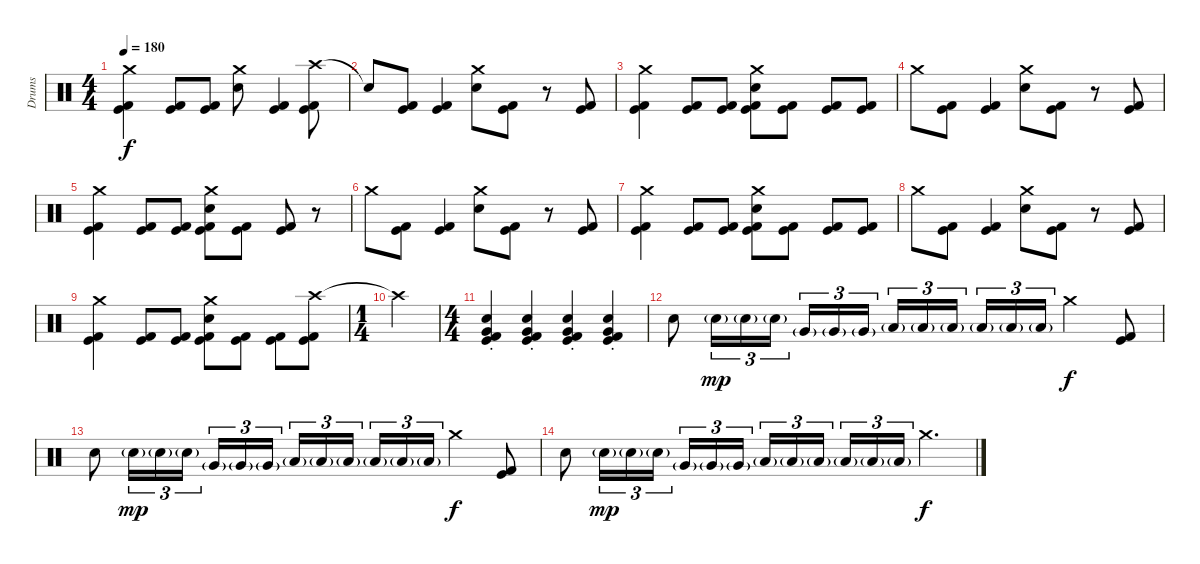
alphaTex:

\track ("Drums" "Drums") {instrument percussion}
\staff {score}
\articulation defaults
\ts (4 4)
\tempo 180
\clef neutral
\ks c
("Crash medium (hit)" "Kick (hit)" "Kick (hit) 2").4{dy f} ("Kick (hit)" "Kick (hit) 2").8 ("Kick (hit)" "Kick (hit) 2").8 ("Crash medium (hit)" "Electric Snare (hit)").8 ("Kick (hit)" "Kick (hit) 2").4 ("Crash high (hit)" "Kick (hit)" "Kick (hit) 2").8 |
"Snare (hit)"{t}.8 ("Kick (hit)" "Kick (hit) 2").8 ("Kick (hit)" "Kick (hit) 2").4 ("Crash medium (hit)" "Electric Snare (hit)").8 ("Kick (hit)" "Kick (hit) 2").8 r.8 ("Kick (hit)" "Kick (hit) 2").8 |
("Crash medium (hit)" "Kick (hit)" "Kick (hit) 2").4 ("Kick (hit)" "Kick (hit) 2").8 ("Kick (hit)" "Kick (hit) 2").8 ("Crash medium (hit)" "Electric Snare (hit)" "Kick (hit)" "Kick (hit) 2").8 ("Kick (hit)" "Kick (hit) 2").8 ("Kick (hit)" "Kick (hit) 2").8 ("Kick (hit)" "Kick (hit) 2").8 |
"Crash medium (hit)".8 ("Kick (hit)" "Kick (hit) 2").8 ("Kick (hit)" "Kick (hit) 2").4 ("Crash medium (hit)" "Electric Snare (hit)").8 ("Kick (hit)" "Kick (hit) 2").8 r.8 ("Kick (hit)" "Kick (hit) 2").8 |
("Crash medium (hit)" "Kick (hit)" "Kick (hit) 2").4 ("Kick (hit)" "Kick (hit) 2").8 ("Kick (hit)" "Kick (hit) 2").8 ("Crash medium (hit)" "Electric Snare (hit)" "Kick (hit)" "Kick (hit) 2").8 ("Kick (hit)" "Kick (hit) 2").8 ("Kick (hit)" "Kick (hit) 2").8 r.8 |
"Crash medium (hit)".8 ("Kick (hit)" "Kick (hit) 2").8 ("Kick (hit)" "Kick (hit) 2").4 ("Crash medium (hit)" "Electric Snare (hit)").8 ("Kick (hit)" "Kick (hit) 2").8 r.8 ("Kick (hit)" "Kick (hit) 2").8 |
("Crash medium (hit)" "Kick (hit)" "Kick (hit) 2").4 ("Kick (hit)" "Kick (hit) 2").8 ("Kick (hit)" "Kick (hit) 2").8 ("Crash medium (hit)" "Electric Snare (hit)" "Kick (hit)" "Kick (hit) 2").8 ("Kick (hit)" "Kick (hit) 2").8 ("Kick (hit)" "Kick (hit) 2").8 ("Kick (hit)" "Kick (hit) 2").8 |
"Crash medium (hit)".8 ("Kick (hit)" "Kick (hit) 2").8 ("Kick (hit)" "Kick (hit) 2").4 ("Crash medium (hit)" "Electric Snare (hit)").8 ("Kick (hit)" "Kick (hit) 2").8 r.8 ("Kick (hit)" "Kick (hit) 2").8 |
("Crash medium (hit)" "Kick (hit)" "Kick (hit) 2").4 ("Kick (hit)" "Kick (hit) 2").8 ("Kick (hit)" "Kick (hit) 2").8 ("Crash medium (hit)" "Electric Snare (hit)" "Kick (hit)" "Kick (hit) 2").8 ("Kick (hit)" "Kick (hit) 2").8 ("Kick (hit)" "Kick (hit) 2").8 ("Crash high (hit)" "Kick (hit)" "Kick (hit) 2").8 |
\ts (1 4)
"Crash high (hit)"{t}.4 |
\ts (4 4)
("Very Low Tom (hit)"{st} "Electric Snare (hit)"{st} "Kick (hit)" "Kick (hit) 2").4 ("Very Low Tom (hit)"{st} "Electric Snare (hit)"{st} "Kick (hit)" "Kick (hit) 2").4 ("Very Low Tom (hit)"{st} "Electric Snare (hit)"{st} "Kick (hit)" "Kick (hit) 2").4 ("Very Low Tom (hit)"{st} "Electric Snare (hit)"{st} "Kick (hit)" "Kick (hit) 2").4 |
"Electric Snare (hit)".8 "Electric Snare (hit)"{g}.16{tu (3 2) dy mp} "Electric Snare (hit)"{g}.16{tu (3 2)} "Electric Snare (hit)"{g}.16{tu (3 2)} "Very Low Tom (hit)"{g}.16{tu (3 2)} "Very Low Tom (hit)"{g}.16{tu (3 2)} "Very Low Tom (hit)"{g}.16{tu (3 2) beam splitsecondary} "Low Tom (hit)"{g}.16{tu (3 2)} "Low Tom (hit)"{g}.16{tu (3 2)} "Low Tom (hit)"{g}.16{tu (3 2)} "Low Floor Tom (hit)"{g}.16{tu (3 2)} "Low Floor Tom (hit)"{g}.16{tu (3 2)} "Low Floor Tom (hit)"{g}.16{tu (3 2)} "Crash medium (hit)".4{dy f} ("Kick (hit)" "Kick (hit) 2").8 |
"Electric Snare (hit)".8 "Electric Snare (hit)"{g}.16{tu (3 2) dy mp} "Electric Snare (hit)"{g}.16{tu (3 2)} "Electric Snare (hit)"{g}.16{tu (3 2)} "Very Low Tom (hit)"{g}.16{tu (3 2)} "Very Low Tom (hit)"{g}.16{tu (3 2)} "Very Low Tom (hit)"{g}.16{tu (3 2) beam splitsecondary} "Low Tom (hit)"{g}.16{tu (3 2)} "Low Tom (hit)"{g}.16{tu (3 2)} "Low Tom (hit)"{g}.16{tu (3 2)} "Low Floor Tom (hit)"{g}.16{tu (3 2)} "Low Floor Tom (hit)"{g}.16{tu (3 2)} "Low Floor Tom (hit)"{g}.16{tu (3 2)} "Crash medium (hit)".4{dy f} ("Kick (hit)" "Kick (hit) 2").8 |
"Electric Snare (hit)".8 "Electric Snare (hit)"{g}.16{tu (3 2) dy mp} "Electric Snare (hit)"{g}.16{tu (3 2)} "Electric Snare (hit)"{g}.16{tu (3 2)} "Very Low Tom (hit)"{g}.16{tu (3 2)} "Very Low Tom (hit)"{g}.16{tu (3 2)} "Very Low Tom (hit)"{g}.16{tu (3 2) beam splitsecondary} "Low Tom (hit)"{g}.16{tu (3 2)} "Low Tom (hit)"{g}.16{tu (3 2)} "Low Tom (hit)"{g}.16{tu (3 2)} "Low Floor Tom (hit)"{g}.16{tu (3 2)} "Low Floor Tom (hit)"{g}.16{tu (3 2)} "Low Floor Tom (hit)"{g}.16{tu (3 2)} "Crash medium (hit)".4{d dy f}
